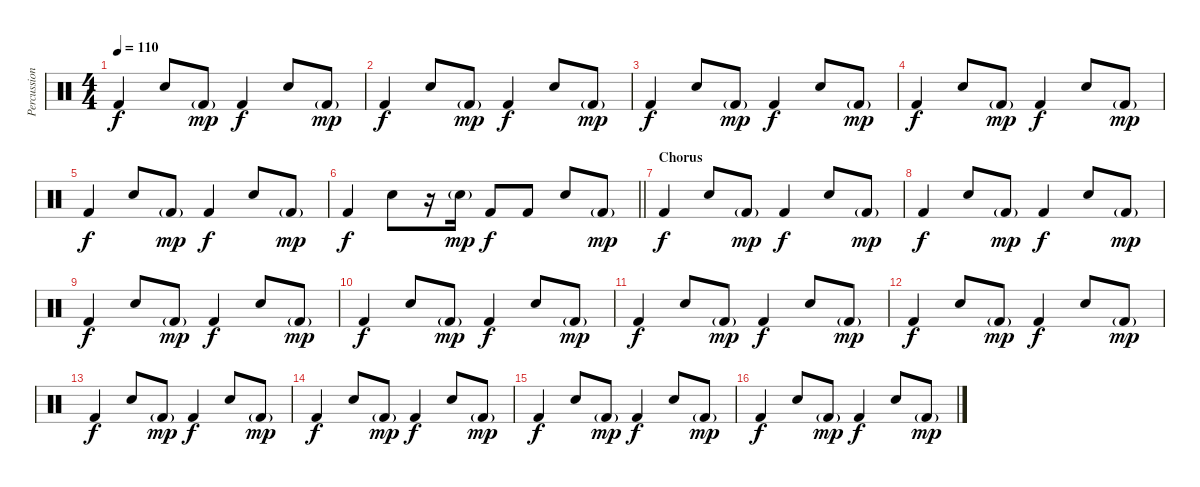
\track ("Percussion" "Percussion") {instrument percussion}
\staff {score}
\articulation defaults
\ts (4 4)
\tempo 110
\clef neutral
\ks c "Kick (hit) 2".4{dy f} "Snare (hit) 2".8 "Kick (hit) 2"{g}.8{dy mp} "Kick (hit) 2".4{dy f} "Snare (hit) 2".8 "Kick (hit) 2"{g}.8{dy mp}
|
"Kick (hit) 2".4{dy f} "Snare (hit) 2".8 "Kick (hit) 2"{g}.8{dy mp} "Kick (hit) 2".4{dy f} "Snare (hit) 2".8 "Kick (hit) 2"{g}.8{dy mp} |
"Kick (hit) 2".4{dy f} "Snare (hit) 2".8 "Kick (hit) 2"{g}.8{dy mp} "Kick (hit) 2".4{dy f} "Snare (hit) 2".8 "Kick (hit) 2"{g}.8{dy mp} |
"Kick (hit) 2".4{dy f} "Snare (hit) 2".8 "Kick (hit) 2"{g}.8{dy mp} "Kick (hit) 2".4{dy f} "Snare (hit) 2".8 "Kick (hit) 2"{g}.8{dy mp} |
"Kick (hit) 2".4{dy f} "Snare (hit) 2".8 "Kick (hit) 2"{g}.8{dy mp} "Kick (hit) 2".4{dy f} "Snare (hit) 2".8 "Kick (hit) 2"{g}.8{dy mp} |
\barLineRight lightlight "Kick (hit) 2".4{dy f} "Snare (hit) 2".8
r.16 "Snare (hit) 2"{g}.16{dy mp} "Kick (hit) 2".8{dy f} "Kick (hit) 2".8 "Snare (hit) 2".8 "Kick (hit) 2"{g}.8{dy mp} |
\section ("" "Chorus")
"Kick (hit) 2".4{dy f} "Snare (hit) 2".8 "Kick (hit) 2"{g}.8{dy mp} "Kick (hit) 2".4{dy f} "Snare (hit) 2".8 "Kick (hit) 2"{g}.8{dy mp} |
"Kick (hit) 2".4{dy f} "Snare (hit) 2".8 "Kick (hit) 2"{g}.8{dy mp} "Kick (hit) 2".4{dy f} "Snare (hit) 2".8 "Kick (hit) 2"{g}.8{dy mp} |
"Kick (hit) 2".4{dy f} "Snare (hit) 2".8 "Kick (hit) 2"{g}.8{dy mp} "Kick (hit) 2".4{dy f} "Snare (hit) 2".8 "Kick (hit) 2"{g}.8{dy mp} |
"Kick (hit) 2".4{dy f} "Snare (hit) 2".8 "Kick (hit) 2"{g}.8{dy mp} "Kick (hit) 2".4{dy f} "Snare (hit) 2".8 "Kick (hit) 2"{g}.8{dy mp} |
"Kick (hit) 2".4{dy f} "Snare (hit) 2".8 "Kick (hit) 2"{g}.8{dy mp} "Kick (hit) 2".4{dy f} "Snare (hit) 2".8 "Kick (hit) 2"{g}.8{dy mp} |
"Kick (hit) 2".4{dy f} "Snare (hit) 2".8 "Kick (hit) 2"{g}.8{dy mp} "Kick (hit) 2".4{dy f} "Snare (hit) 2".8 "Kick (hit) 2"{g}.8{dy mp} |
"Kick (hit) 2".4{dy f} "Snare (hit) 2".8 "Kick (hit) 2"{g}.8{dy mp} "Kick (hit) 2".4{dy f} "Snare (hit) 2".8 "Kick (hit) 2"{g}.8{dy mp} |
"Kick (hit) 2".4{dy f} "Snare (hit) 2".8 "Kick (hit) 2"{g}.8{dy mp} "Kick (hit) 2".4{dy f} "Snare (hit) 2".8 "Kick (hit) 2"{g}.8{dy mp} |
"Kick (hit) 2".4{dy f} "Snare (hit) 2".8 "Kick (hit) 2"{g}.8{dy mp} "Kick (hit) 2".4{dy f} "Snare (hit) 2".8 "Kick (hit) 2"{g}.8{dy mp} |
"Kick (hit) 2".4{dy f} "Snare (hit) 2".8 "Kick (hit) 2"{g}.8{dy mp} "Kick (hit) 2".4{dy f} "Snare (hit) 2".8 "Kick (hit) 2"{g}.8{dy mp}
